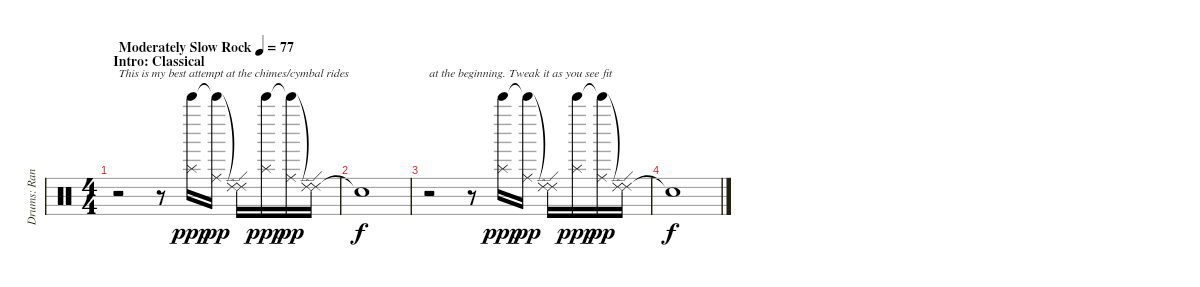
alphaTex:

\track ("Drums: Randy" "Drums: Ran") {instrument percussion}
\staff {score}
\articulation defaults
\ts (4 4)
\section ("" "Intro: Classical")
\tempo (77 "Moderately Slow Rock")
\tempo 75
\tempo (77 "Moderately Slow Rock")
\clef neutral
\ks c
r.2{txt "This is my best attempt at the chimes/cymbal rides" dy ppp} r.8{volume 6} ("Bell Tree (hit)" "Splash (hit)").16 ("Bell Tree (hit)"{t} "Ride (middle)").16{dy pp} ("Ride (edge) 2"{t} "Ride (edge) 2").16 ("Bell Tree (hit)" "Splash (hit)").16{dy ppp} ("Bell Tree (hit)"{t} "Ride (middle)").16{dy pp} ("Ride (edge) 2"{t} "Ride (edge) 2").16 |
"Snare (hit)"{t}.1{dy f} |
r.2{txt "at the beginning. Tweak it as you see fit"} r.8 ("Bell Tree (hit)" "Splash (hit)").16{dy ppp} ("Bell Tree (hit)"{t} "Ride (middle)").16{dy pp} ("Ride (edge) 2"{t} "Ride (edge) 2").16 ("Bell Tree (hit)" "Splash (hit)").16{dy ppp} ("Bell Tree (hit)"{t} "Ride (middle)").16{dy pp} ("Ride (edge) 2"{t} "Ride (edge) 2").16 |
"Snare (hit)"{t}.1{dy f}
